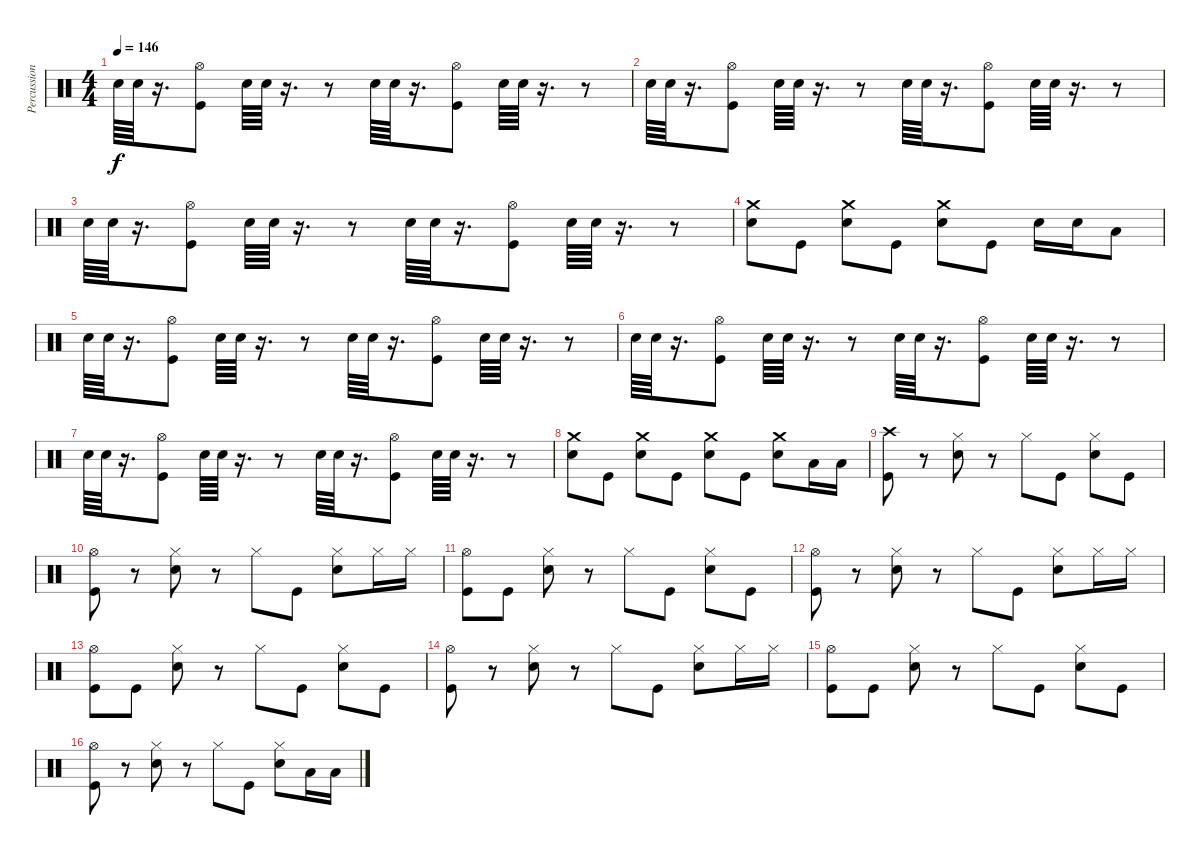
\track ("Percussion" "Percussion") {instrument percussion}
\staff {score}
\articulation defaults
\ts (4 4)
\tempo 146
\clef neutral
\ks c "Snare (hit) 2".64{dy f} "Snare (hit) 2".64
r.16{d} ("Hi-Hat (open)" "Kick (hit)").8 "Snare (hit) 2".64 "Snare (hit) 2".64 r.16{d} r.8 "Snare (hit) 2".64 "Snare (hit) 2".64 r.16{d} ("Hi-Hat (open)" "Kick (hit)").8 "Snare (hit) 2".64 "Snare (hit) 2".64 r.16{d} r.8 |
"Snare (hit) 2".64 "Snare (hit) 2".64 r.16{d} ("Hi-Hat (open)" "Kick (hit)").8 "Snare (hit) 2".64 "Snare (hit) 2".64 r.16{d} r.8 "Snare (hit) 2".64 "Snare (hit) 2".64 r.16{d} ("Hi-Hat (open)" "Kick (hit)").8 "Snare (hit) 2".64 "Snare (hit) 2".64 r.16{d} r.8 |
"Snare (hit) 2".64 "Snare (hit) 2".64 r.16{d} ("Hi-Hat (open)" "Kick (hit)").8 "Snare (hit) 2".64 "Snare (hit) 2".64 r.16{d} r.8 "Snare (hit) 2".64 "Snare (hit) 2".64 r.16{d} ("Hi-Hat (open)" "Kick (hit)").8 "Snare (hit) 2".64 "Snare (hit) 2".64 r.16{d} r.8 |
("Crash medium (hit)" "Snare (hit) 2").8 "Kick (hit)".8 ("Crash medium (hit)" "Snare (hit) 2").8 "Kick (hit)".8 ("Crash medium (hit)" "Snare (hit) 2").8 "Kick (hit)".8 "Snare (hit) 2".16 "Snare (hit) 2".16 "Low Tom (hit)".8 |
"Snare (hit) 2".64 "Snare (hit) 2".64 r.16{d} ("Hi-Hat (open)" "Kick (hit)").8 "Snare (hit) 2".64 "Snare (hit) 2".64 r.16{d} r.8 "Snare (hit) 2".64 "Snare (hit) 2".64 r.16{d} ("Hi-Hat (open)" "Kick (hit)").8 "Snare (hit) 2".64 "Snare (hit) 2".64 r.16{d} r.8 |
"Snare (hit) 2".64 "Snare (hit) 2".64 r.16{d} ("Hi-Hat (open)" "Kick (hit)").8 "Snare (hit) 2".64 "Snare (hit) 2".64 r.16{d} r.8 "Snare (hit) 2".64 "Snare (hit) 2".64 r.16{d} ("Hi-Hat (open)" "Kick (hit)").8 "Snare (hit) 2".64 "Snare (hit) 2".64 r.16{d} r.8 |
"Snare (hit) 2".64 "Snare (hit) 2".64 r.16{d} ("Hi-Hat (open)" "Kick (hit)").8 "Snare (hit) 2".64 "Snare (hit) 2".64 r.16{d} r.8 "Snare (hit) 2".64 "Snare (hit) 2".64 r.16{d} ("Hi-Hat (open)" "Kick (hit)").8 "Snare (hit) 2".64 "Snare (hit) 2".64 r.16{d} r.8 |
("Crash medium (hit)" "Snare (hit) 2").8 "Kick (hit)".8 ("Crash medium (hit)" "Snare (hit) 2").8 "Kick (hit)".8 ("Crash medium (hit)" "Snare (hit) 2").8 "Kick (hit)".8 ("Crash medium (hit)" "Snare (hit) 2").8 "Low Floor Tom (hit)".16 "Low Floor Tom (hit)".16 |
("Crash high (hit)" "Kick (hit)").8 r.8 ("Hi-Hat (closed)" "Snare (hit) 2").8 r.8 "Hi-Hat (closed)".8 "Kick (hit)".8 ("Hi-Hat (closed)" "Snare (hit) 2").8 "Kick (hit)".8 |
("Hi-Hat (open)" "Kick (hit)").8 r.8 ("Hi-Hat (closed)" "Snare (hit) 2").8 r.8 "Hi-Hat (closed)".8 "Kick (hit)".8 ("Hi-Hat (closed)" "Snare (hit) 2").8 "Hi-Hat (closed)".16 "Hi-Hat (closed)".16 |
("Hi-Hat (open)" "Kick (hit)").8 "Kick (hit)".8 ("Hi-Hat (closed)" "Snare (hit) 2").8 r.8 "Hi-Hat (closed)".8 "Kick (hit)".8 ("Hi-Hat (closed)" "Snare (hit) 2").8 "Kick (hit)".8 |
("Hi-Hat (open)" "Kick (hit)").8 r.8 ("Hi-Hat (closed)" "Snare (hit) 2").8 r.8 "Hi-Hat (closed)".8 "Kick (hit)".8 ("Hi-Hat (closed)" "Snare (hit) 2").8 "Hi-Hat (closed)".16 "Hi-Hat (closed)".16 |
("Hi-Hat (open)" "Kick (hit)").8 "Kick (hit)".8 ("Hi-Hat (closed)" "Snare (hit) 2").8 r.8 "Hi-Hat (closed)".8 "Kick (hit)".8 ("Hi-Hat (closed)" "Snare (hit) 2").8 "Kick (hit)".8 |
("Hi-Hat (open)" "Kick (hit)").8 r.8 ("Hi-Hat (closed)" "Snare (hit) 2").8 r.8 "Hi-Hat (closed)".8 "Kick (hit)".8 ("Hi-Hat (closed)" "Snare (hit) 2").8 "Hi-Hat (closed)".16 "Hi-Hat (closed)".16 |
("Hi-Hat (open)" "Kick (hit)").8 "Kick (hit)".8 ("Hi-Hat (closed)" "Snare (hit) 2").8 r.8 "Hi-Hat (closed)".8 "Kick (hit)".8 ("Hi-Hat (closed)" "Snare (hit) 2").8 "Kick (hit)".8 |
("Hi-Hat (open)" "Kick (hit)").8 r.8 ("Hi-Hat (closed)" "Snare (hit) 2").8 r.8 "Hi-Hat (closed)".8 "Kick (hit)".8 ("Hi-Hat (closed)" "Snare (hit) 2").8 "Low Floor Tom (hit)".16 "Low Floor Tom (hit)".16
